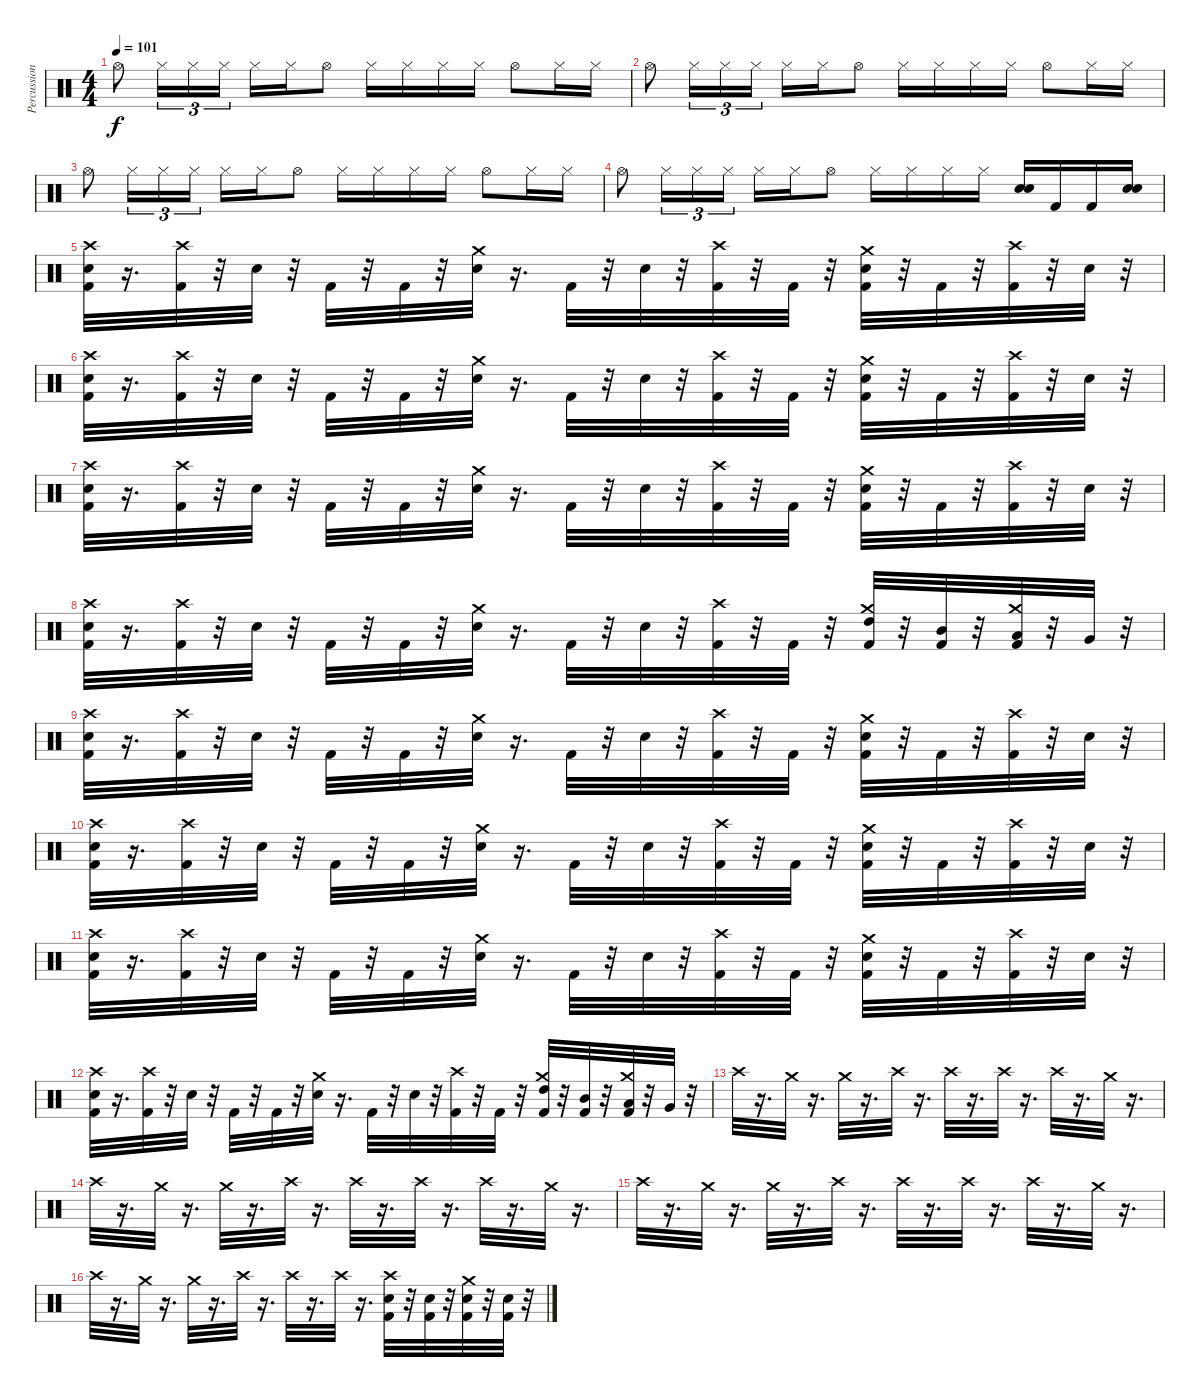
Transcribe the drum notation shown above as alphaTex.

\track ("Percussion" "Percussion") {instrument percussion}
\staff {score}
\articulation defaults
\ts (4 4)
\tempo 101
\clef neutral
\ks c "Hi-Hat (open)".8{dy f} "Hi-Hat (closed)".16{tu (3 2)} "Hi-Hat (closed)".16{tu (3 2)} "Hi-Hat (closed)".16{tu (3 2)} "Hi-Hat (closed)".16 "Hi-Hat (closed)".16 "Hi-Hat (open)".8 "Hi-Hat (closed)".16 "Hi-Hat (closed)".16 "Hi-Hat (closed)".16 "Hi-Hat (closed)".16 "Hi-Hat (open)".8 "Hi-Hat (closed)".16 "Hi-Hat (closed)".16
|
"Hi-Hat (open)".8 "Hi-Hat (closed)".16{tu (3 2)} "Hi-Hat (closed)".16{tu (3 2)} "Hi-Hat (closed)".16{tu (3 2)} "Hi-Hat (closed)".16 "Hi-Hat (closed)".16 "Hi-Hat (open)".8 "Hi-Hat (closed)".16 "Hi-Hat (closed)".16 "Hi-Hat (closed)".16 "Hi-Hat (closed)".16 "Hi-Hat (open)".8 "Hi-Hat (closed)".16 "Hi-Hat (closed)".16 |
"Hi-Hat (open)".8 "Hi-Hat (closed)".16{tu (3 2)} "Hi-Hat (closed)".16{tu (3 2)} "Hi-Hat (closed)".16{tu (3 2)} "Hi-Hat (closed)".16 "Hi-Hat (closed)".16 "Hi-Hat (open)".8 "Hi-Hat (closed)".16 "Hi-Hat (closed)".16 "Hi-Hat (closed)".16 "Hi-Hat (closed)".16 "Hi-Hat (open)".8 "Hi-Hat (closed)".16 "Hi-Hat (closed)".16 |
"Hi-Hat (open)".8 "Hi-Hat (closed)".16{tu (3 2)} "Hi-Hat (closed)".16{tu (3 2)} "Hi-Hat (closed)".16{tu (3 2)} "Hi-Hat (closed)".16 "Hi-Hat (closed)".16 "Hi-Hat (open)".8 "Hi-Hat (closed)".16 "Hi-Hat (closed)".16 "Hi-Hat (closed)".16 "Hi-Hat (closed)".16 ("Snare (hit) 2" "Electric Snare (hit)").16 "Kick (hit) 2".16 "Kick (hit) 2".16 ("Snare (hit) 2" "Electric Snare (hit)").16 |
("Crash high (hit)" "Snare (hit) 2" "Kick (hit) 2").32 r.16{d} ("Crash high (hit)" "Kick (hit) 2").32 r.32 "Snare (hit) 2".32 r.32 "Kick (hit) 2".32 r.32 "Kick (hit) 2".32 r.32 ("Crash medium (hit)" "Snare (hit) 2").32 r.16{d} "Kick (hit) 2".32 r.32 "Snare (hit) 2".32 r.32 ("Crash high (hit)" "Kick (hit) 2").32 r.32 "Kick (hit) 2".32 r.32 ("Crash medium (hit)" "Snare (hit) 2" "Kick (hit) 2").32 r.32 "Kick (hit) 2".32 r.32 ("Crash high (hit)" "Kick (hit) 2").32 r.32 "Snare (hit) 2".32 r.32 |
("Crash high (hit)" "Snare (hit) 2" "Kick (hit) 2").32 r.16{d} ("Crash high (hit)" "Kick (hit) 2").32 r.32 "Snare (hit) 2".32 r.32 "Kick (hit) 2".32 r.32 "Kick (hit) 2".32 r.32 ("Crash medium (hit)" "Snare (hit) 2").32 r.16{d} "Kick (hit) 2".32 r.32 "Snare (hit) 2".32 r.32 ("Crash high (hit)" "Kick (hit) 2").32 r.32 "Kick (hit) 2".32 r.32 ("Crash medium (hit)" "Snare (hit) 2" "Kick (hit) 2").32 r.32 "Kick (hit) 2".32 r.32 ("Crash high (hit)" "Kick (hit) 2").32 r.32 "Snare (hit) 2".32 r.32 |
("Crash high (hit)" "Snare (hit) 2" "Kick (hit) 2").32 r.16{d} ("Crash high (hit)" "Kick (hit) 2").32 r.32 "Snare (hit) 2".32 r.32 "Kick (hit) 2".32 r.32 "Kick (hit) 2".32 r.32 ("Crash medium (hit)" "Snare (hit) 2").32 r.16{d} "Kick (hit) 2".32 r.32 "Snare (hit) 2".32 r.32 ("Crash high (hit)" "Kick (hit) 2").32 r.32 "Kick (hit) 2".32 r.32 ("Crash medium (hit)" "Snare (hit) 2" "Kick (hit) 2").32 r.32 "Kick (hit) 2".32 r.32 ("Crash high (hit)" "Kick (hit) 2").32 r.32 "Snare (hit) 2".32 r.32 |
("Crash high (hit)" "Snare (hit) 2" "Kick (hit) 2").32 r.16{d} ("Crash high (hit)" "Kick (hit) 2").32 r.32 "Snare (hit) 2".32 r.32 "Kick (hit) 2".32 r.32 "Kick (hit) 2".32 r.32 ("Crash medium (hit)" "Snare (hit) 2").32 r.16{d} "Kick (hit) 2".32 r.32 "Snare (hit) 2".32 r.32 ("Crash high (hit)" "Kick (hit) 2").32 r.32 "Kick (hit) 2".32 r.32 ("Crash medium (hit)" "High Tom (hit)" "Kick (hit) 2").32 r.32 ("Mid Tom (hit)" "Kick (hit) 2").32 r.32 ("Crash medium (hit)" "Low Tom (hit)" "Kick (hit) 2").32 r.32 "Very Low Tom (hit)".32 r.32 |
("Crash high (hit)" "Snare (hit) 2" "Kick (hit) 2").32 r.16{d} ("Crash high (hit)" "Kick (hit) 2").32 r.32 "Snare (hit) 2".32 r.32 "Kick (hit) 2".32 r.32 "Kick (hit) 2".32 r.32 ("Crash medium (hit)" "Snare (hit) 2").32 r.16{d} "Kick (hit) 2".32 r.32 "Snare (hit) 2".32 r.32 ("Crash high (hit)" "Kick (hit) 2").32 r.32 "Kick (hit) 2".32 r.32 ("Crash medium (hit)" "Snare (hit) 2" "Kick (hit) 2").32 r.32 "Kick (hit) 2".32 r.32 ("Crash high (hit)" "Kick (hit) 2").32 r.32 "Snare (hit) 2".32 r.32 |
("Crash high (hit)" "Snare (hit) 2" "Kick (hit) 2").32 r.16{d} ("Crash high (hit)" "Kick (hit) 2").32 r.32 "Snare (hit) 2".32 r.32 "Kick (hit) 2".32 r.32 "Kick (hit) 2".32 r.32 ("Crash medium (hit)" "Snare (hit) 2").32 r.16{d} "Kick (hit) 2".32 r.32 "Snare (hit) 2".32 r.32 ("Crash high (hit)" "Kick (hit) 2").32 r.32 "Kick (hit) 2".32 r.32 ("Crash medium (hit)" "Snare (hit) 2" "Kick (hit) 2").32 r.32 "Kick (hit) 2".32 r.32 ("Crash high (hit)" "Kick (hit) 2").32 r.32 "Snare (hit) 2".32 r.32 |
("Crash high (hit)" "Snare (hit) 2" "Kick (hit) 2").32 r.16{d} ("Crash high (hit)" "Kick (hit) 2").32 r.32 "Snare (hit) 2".32 r.32 "Kick (hit) 2".32 r.32 "Kick (hit) 2".32 r.32 ("Crash medium (hit)" "Snare (hit) 2").32 r.16{d} "Kick (hit) 2".32 r.32 "Snare (hit) 2".32 r.32 ("Crash high (hit)" "Kick (hit) 2").32 r.32 "Kick (hit) 2".32 r.32 ("Crash medium (hit)" "Snare (hit) 2" "Kick (hit) 2").32 r.32 "Kick (hit) 2".32 r.32 ("Crash high (hit)" "Kick (hit) 2").32 r.32 "Snare (hit) 2".32 r.32 |
("Crash high (hit)" "Snare (hit) 2" "Kick (hit) 2").32 r.16{d} ("Crash high (hit)" "Kick (hit) 2").32 r.32 "Snare (hit) 2".32 r.32 "Kick (hit) 2".32 r.32 "Kick (hit) 2".32 r.32 ("Crash medium (hit)" "Snare (hit) 2").32 r.16{d} "Kick (hit) 2".32 r.32 "Snare (hit) 2".32 r.32 ("Crash high (hit)" "Kick (hit) 2").32 r.32 "Kick (hit) 2".32 r.32 ("Crash medium (hit)" "High Tom (hit)" "Kick (hit) 2").32 r.32 ("Mid Tom (hit)" "Kick (hit) 2").32 r.32 ("Crash medium (hit)" "Low Tom (hit)" "Kick (hit) 2").32 r.32 "Very Low Tom (hit)".32 r.32 |
"Crash high (hit)".32 r.16{d} "Crash medium (hit)".32 r.16{d} "Crash medium (hit)".32 r.16{d} "Crash high (hit)".32 r.16{d} "Crash high (hit)".32 r.16{d} "Crash high (hit)".32 r.16{d} "Crash high (hit)".32 r.16{d} "Crash medium (hit)".32 r.16{d} |
"Crash high (hit)".32 r.16{d} "Crash medium (hit)".32 r.16{d} "Crash medium (hit)".32 r.16{d} "Crash high (hit)".32 r.16{d} "Crash high (hit)".32 r.16{d} "Crash high (hit)".32 r.16{d} "Crash high (hit)".32 r.16{d} "Crash medium (hit)".32 r.16{d} |
"Crash high (hit)".32 r.16{d} "Crash medium (hit)".32 r.16{d} "Crash medium (hit)".32 r.16{d} "Crash high (hit)".32 r.16{d} "Crash high (hit)".32 r.16{d} "Crash high (hit)".32 r.16{d} "Crash high (hit)".32 r.16{d} "Crash medium (hit)".32 r.16{d} |
"Crash high (hit)".32 r.16{d} "Crash medium (hit)".32 r.16{d} "Crash medium (hit)".32 r.16{d} "Crash high (hit)".32 r.16{d} "Crash high (hit)".32 r.16{d} "Crash high (hit)".32 r.16{d} ("Crash high (hit)" "Snare (hit) 2" "Kick (hit) 2").32 r.32 ("Snare (hit) 2" "Kick (hit) 2").32 r.32 ("Crash medium (hit)" "Snare (hit) 2" "Kick (hit) 2").32 r.32 ("Snare (hit) 2" "Kick (hit) 2").32 r.32
